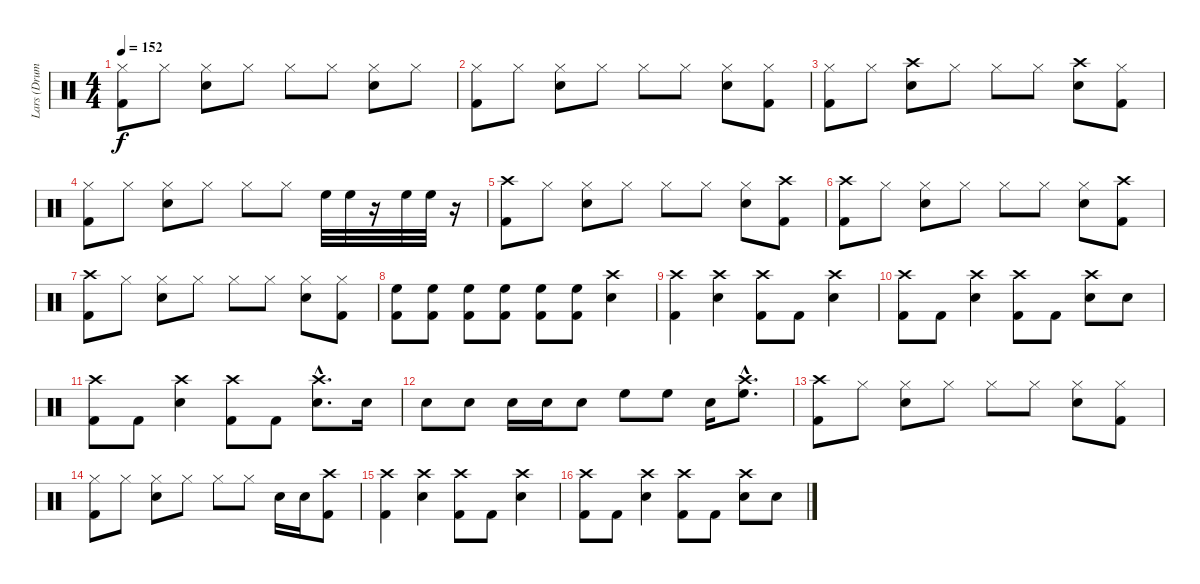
\track ("Lars (Drums)" "Lars (Drum") {instrument percussion}
\staff {score}
\articulation defaults
\ts (4 4)
\tempo 152
\clef neutral
\ks c
("Hi-Hat (closed)" "Kick (hit) 2").8{dy f} "Hi-Hat (closed)".8 ("Hi-Hat (closed)" "Snare (hit) 2").8 "Hi-Hat (closed)".8 "Hi-Hat (closed)".8 "Hi-Hat (closed)".8 ("Hi-Hat (closed)" "Snare (hit) 2").8 "Hi-Hat (closed)".8 |
("Hi-Hat (closed)" "Kick (hit) 2").8 "Hi-Hat (closed)".8 ("Hi-Hat (closed)" "Snare (hit) 2").8 "Hi-Hat (closed)".8 "Hi-Hat (closed)".8 "Hi-Hat (closed)".8 ("Hi-Hat (closed)" "Snare (hit) 2").8 ("Hi-Hat (closed)" "Kick (hit) 2").8 |
("Hi-Hat (closed)" "Kick (hit) 2").8 "Hi-Hat (closed)".8 ("Crash high (hit)" "Snare (hit) 2").8 "Hi-Hat (closed)".8 "Hi-Hat (closed)".8 "Hi-Hat (closed)".8 ("Crash high (hit)" "Snare (hit) 2").8 ("Hi-Hat (closed)" "Kick (hit) 2").8 |
("Hi-Hat (closed)" "Kick (hit) 2").8 "Hi-Hat (closed)".8 ("Hi-Hat (closed)" "Snare (hit) 2").8 "Hi-Hat (closed)".8 "Hi-Hat (closed)".8 "Hi-Hat (closed)".8 "High Floor Tom (hit)".32 "High Floor Tom (hit)".32 r.16 "High Floor Tom (hit)".32 "High Floor Tom (hit)".32 r.16 |
("Crash high (hit)" "Kick (hit) 2").8 "Hi-Hat (closed)".8 ("Hi-Hat (closed)" "Snare (hit) 2").8 "Hi-Hat (closed)".8 "Hi-Hat (closed)".8 "Hi-Hat (closed)".8 ("Hi-Hat (closed)" "Snare (hit) 2").8 ("Crash high (hit)" "Kick (hit) 2").8 |
("Crash high (hit)" "Kick (hit) 2").8 "Hi-Hat (closed)".8 ("Hi-Hat (closed)" "Snare (hit) 2").8 "Hi-Hat (closed)".8 "Hi-Hat (closed)".8 "Hi-Hat (closed)".8 ("Hi-Hat (closed)" "Snare (hit) 2").8 ("Crash high (hit)" "Kick (hit) 2").8 |
("Crash high (hit)" "Kick (hit) 2").8 "Hi-Hat (closed)".8 ("Hi-Hat (closed)" "Snare (hit) 2").8 "Hi-Hat (closed)".8 "Hi-Hat (closed)".8 "Hi-Hat (closed)".8 ("Hi-Hat (closed)" "Snare (hit) 2").8 ("Hi-Hat (closed)" "Kick (hit) 2").8 |
("Kick (hit) 2" "High Floor Tom (hit)").8 ("Kick (hit) 2" "High Floor Tom (hit)").8 ("Kick (hit) 2" "High Floor Tom (hit)").8 ("Kick (hit) 2" "High Floor Tom (hit)").8 ("Kick (hit) 2" "High Floor Tom (hit)").8 ("Kick (hit) 2" "High Floor Tom (hit)").8 ("Crash high (hit)" "Snare (hit) 2").4 |
("Crash high (hit)" "Kick (hit) 2").4 ("Crash high (hit)" "Snare (hit) 2").4 ("Crash high (hit)" "Kick (hit) 2").8 "Kick (hit) 2".8 ("Crash high (hit)" "Snare (hit) 2").4 |
("Crash high (hit)" "Kick (hit) 2").8 "Kick (hit) 2".8 ("Crash high (hit)" "Snare (hit) 2").4 ("Crash high (hit)" "Kick (hit) 2").8 "Kick (hit) 2".8 ("Crash high (hit)" "Snare (hit) 2").8 "Snare (hit) 2".8 |
("Crash high (hit)" "Kick (hit) 2").8 "Kick (hit) 2".8 ("Crash high (hit)" "Snare (hit) 2").4 ("Crash high (hit)" "Kick (hit) 2").8 "Kick (hit) 2".8 ("Crash high (hit)"{hac} "Snare (hit) 2"{hac}).8{d} "Snare (hit) 2".16 |
"Snare (hit) 2".8 "Snare (hit) 2".8 "Snare (hit) 2".16 "Snare (hit) 2".16 "Snare (hit) 2".8 "High Floor Tom (hit)".8 "High Floor Tom (hit)".8 "Snare (hit) 2".16 ("High Floor Tom (hit)"{hac} "Crash high (hit)"{hac}).8{d} |
("Crash high (hit)" "Kick (hit) 2").8 "Hi-Hat (closed)".8 ("Hi-Hat (closed)" "Snare (hit) 2").8 "Hi-Hat (closed)".8 "Hi-Hat (closed)".8 "Hi-Hat (closed)".8 ("Hi-Hat (closed)" "Snare (hit) 2").8 ("Hi-Hat (closed)" "Kick (hit) 2").8 |
("Hi-Hat (closed)" "Kick (hit) 2").8 "Hi-Hat (closed)".8 ("Hi-Hat (closed)" "Snare (hit) 2").8 "Hi-Hat (closed)".8 "Hi-Hat (closed)".8 "Hi-Hat (closed)".8 "Snare (hit) 2".16 "Snare (hit) 2".16 ("Crash high (hit)" "Kick (hit) 2").8 |
("Crash high (hit)" "Kick (hit) 2").4 ("Crash high (hit)" "Snare (hit) 2").4 ("Crash high (hit)" "Kick (hit) 2").8 "Kick (hit) 2".8 ("Crash high (hit)" "Snare (hit) 2").4 |
("Crash high (hit)" "Kick (hit) 2").8 "Kick (hit) 2".8 ("Crash high (hit)" "Snare (hit) 2").4 ("Crash high (hit)" "Kick (hit) 2").8 "Kick (hit) 2".8 ("Crash high (hit)" "Snare (hit) 2").8 "Snare (hit) 2".8
